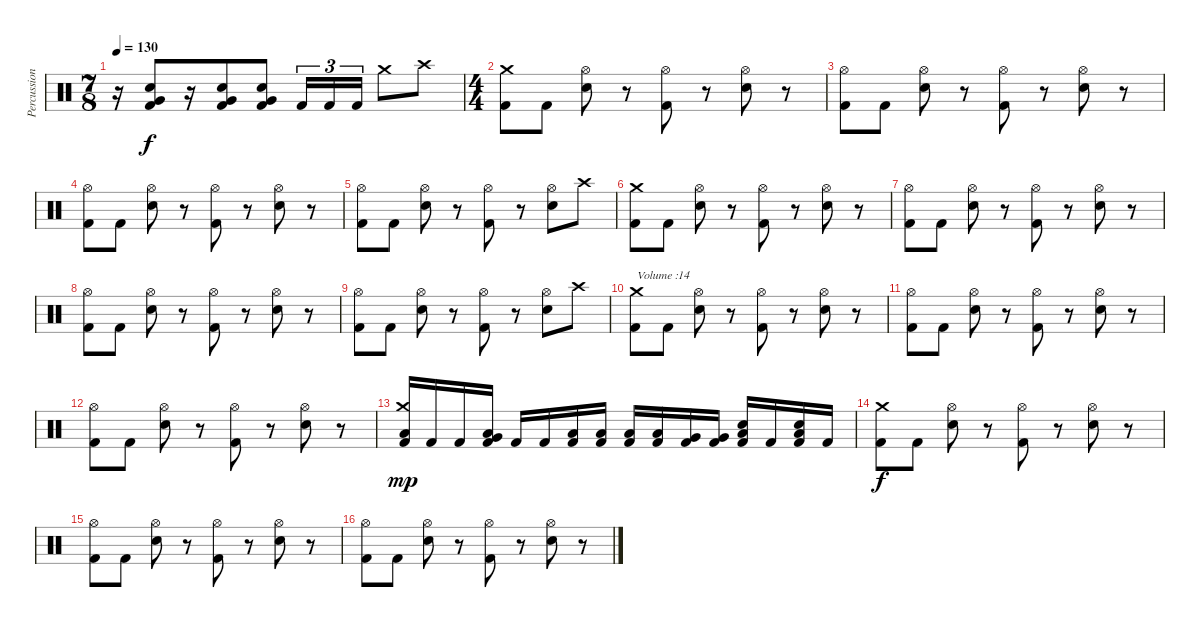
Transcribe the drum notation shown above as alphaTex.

\track ("Percussions" "Percussion") {instrument percussion}
\staff {score}
\articulation defaults
\ts (7 8)
\tempo 130
\clef neutral
\ks c
r.16{dy f} ("Electric Snare (hit)" "Very Low Tom (hit)" "Kick (hit) 2").8 r.16 ("Electric Snare (hit)" "Very Low Tom (hit)" "Kick (hit) 2").8 ("Electric Snare (hit)" "Very Low Tom (hit)" "Kick (hit) 2").8 "Kick (hit) 2".16{tu (3 2)} "Kick (hit) 2".16{tu (3 2)} "Kick (hit) 2".16{tu (3 2)} "Crash medium (hit)".8 "Crash high (hit)".8 |
\ts (4 4)
("Crash medium (hit)" "Kick (hit) 2").8{volume 14} "Kick (hit) 2".8 ("Hi-Hat (open)" "Electric Snare (hit)").8 r.8 ("Hi-Hat (open)" "Kick (hit) 2").8 r.8 ("Hi-Hat (open)" "Electric Snare (hit)").8 r.8 |
("Hi-Hat (open)" "Kick (hit) 2").8 "Kick (hit) 2".8 ("Hi-Hat (open)" "Electric Snare (hit)").8 r.8 ("Hi-Hat (open)" "Kick (hit) 2").8 r.8 ("Hi-Hat (open)" "Electric Snare (hit)").8 r.8 |
("Hi-Hat (open)" "Kick (hit) 2").8 "Kick (hit) 2".8 ("Hi-Hat (open)" "Electric Snare (hit)").8 r.8 ("Hi-Hat (open)" "Kick (hit) 2").8 r.8 ("Hi-Hat (open)" "Electric Snare (hit)").8 r.8 |
("Hi-Hat (open)" "Kick (hit) 2").8 "Kick (hit) 2".8 ("Hi-Hat (open)" "Electric Snare (hit)").8 r.8 ("Hi-Hat (open)" "Kick (hit) 2").8 r.8 ("Hi-Hat (open)" "Electric Snare (hit)").8 "Crash high (hit)".8 |
("Crash medium (hit)" "Kick (hit) 2").8{volume 14} "Kick (hit) 2".8 ("Hi-Hat (open)" "Electric Snare (hit)").8 r.8 ("Hi-Hat (open)" "Kick (hit) 2").8 r.8 ("Hi-Hat (open)" "Electric Snare (hit)").8 r.8 |
("Hi-Hat (open)" "Kick (hit) 2").8 "Kick (hit) 2".8 ("Hi-Hat (open)" "Electric Snare (hit)").8 r.8 ("Hi-Hat (open)" "Kick (hit) 2").8 r.8 ("Hi-Hat (open)" "Electric Snare (hit)").8 r.8 |
("Hi-Hat (open)" "Kick (hit) 2").8 "Kick (hit) 2".8 ("Hi-Hat (open)" "Electric Snare (hit)").8 r.8 ("Hi-Hat (open)" "Kick (hit) 2").8 r.8 ("Hi-Hat (open)" "Electric Snare (hit)").8 r.8 |
("Hi-Hat (open)" "Kick (hit) 2").8 "Kick (hit) 2".8 ("Hi-Hat (open)" "Electric Snare (hit)").8 r.8 ("Hi-Hat (open)" "Kick (hit) 2").8 r.8 ("Hi-Hat (open)" "Electric Snare (hit)").8 "Crash high (hit)".8 |
("Crash medium (hit)" "Kick (hit) 2").8{txt "Volume :14" volume 14} "Kick (hit) 2".8 ("Hi-Hat (open)" "Electric Snare (hit)").8 r.8 ("Hi-Hat (open)" "Kick (hit) 2").8 r.8 ("Hi-Hat (open)" "Electric Snare (hit)").8 r.8 |
("Hi-Hat (open)" "Kick (hit) 2").8 "Kick (hit) 2".8 ("Hi-Hat (open)" "Electric Snare (hit)").8 r.8 ("Hi-Hat (open)" "Kick (hit) 2").8 r.8 ("Hi-Hat (open)" "Electric Snare (hit)").8 r.8 |
("Hi-Hat (open)" "Kick (hit) 2").8{volume 14} "Kick (hit) 2".8 ("Hi-Hat (open)" "Electric Snare (hit)").8 r.8 ("Hi-Hat (open)" "Kick (hit) 2").8 r.8 ("Hi-Hat (open)" "Electric Snare (hit)").8 r.8 |
("Crash medium (hit)" "Low Tom (hit)" "Kick (hit) 2").16{dy mp} "Kick (hit) 2".16 "Kick (hit) 2".16 ("Low Tom (hit)" "Very Low Tom (hit)" "Kick (hit) 2").16 "Kick (hit) 2".16 "Kick (hit) 2".16 ("Low Floor Tom (hit)" "Kick (hit) 2").16 ("Low Floor Tom (hit)" "Kick (hit) 2").16 ("Low Tom (hit)" "Kick (hit) 2").16 ("Low Tom (hit)" "Kick (hit) 2").16 ("Very Low Tom (hit)" "Kick (hit) 2").16 ("Very Low Tom (hit)" "Kick (hit) 2").16 ("Electric Snare (hit)" "Low Tom (hit)" "Kick (hit) 2").16 "Kick (hit) 2".16 ("Electric Snare (hit)" "Low Tom (hit)" "Kick (hit) 2").16 "Kick (hit) 2".16 |
("Crash medium (hit)" "Kick (hit) 2").8{dy f volume 14} "Kick (hit) 2".8 ("Hi-Hat (open)" "Electric Snare (hit)").8 r.8 ("Hi-Hat (open)" "Kick (hit) 2").8 r.8 ("Hi-Hat (open)" "Electric Snare (hit)").8 r.8 |
("Hi-Hat (open)" "Kick (hit) 2").8 "Kick (hit) 2".8 ("Hi-Hat (open)" "Electric Snare (hit)").8 r.8 ("Hi-Hat (open)" "Kick (hit) 2").8 r.8 ("Hi-Hat (open)" "Electric Snare (hit)").8 r.8 |
("Hi-Hat (open)" "Kick (hit) 2").8 "Kick (hit) 2".8 ("Hi-Hat (open)" "Electric Snare (hit)").8 r.8 ("Hi-Hat (open)" "Kick (hit) 2").8 r.8 ("Hi-Hat (open)" "Electric Snare (hit)").8 r.8
